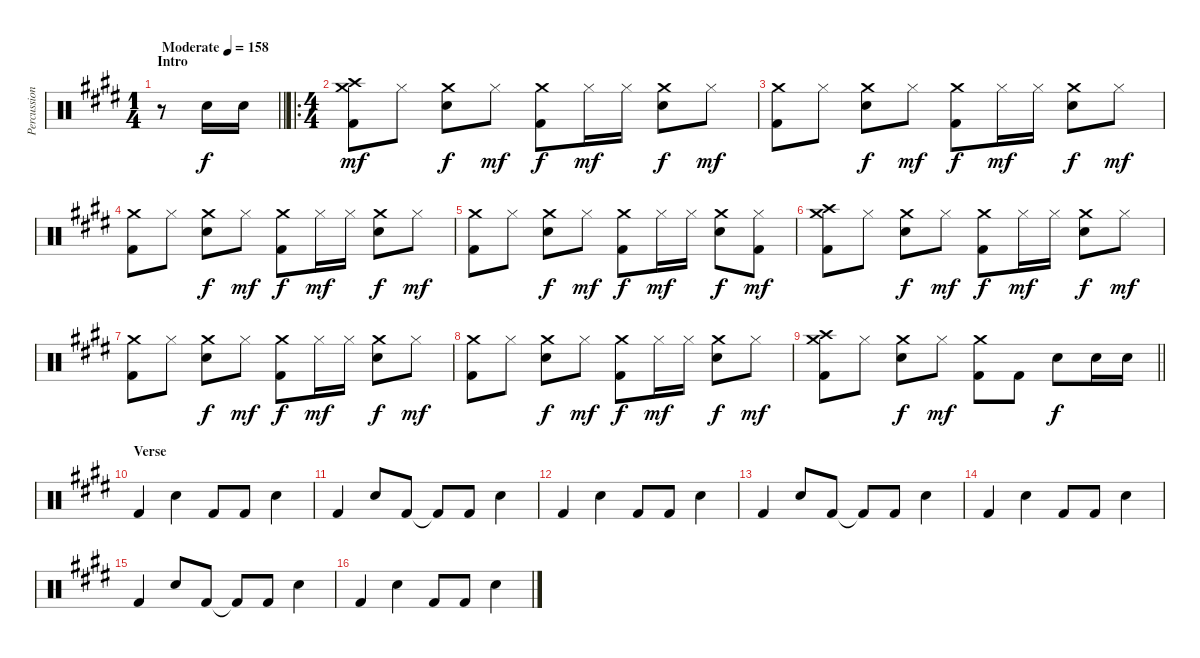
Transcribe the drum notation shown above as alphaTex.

\track ("Percussion" "Percussion") {instrument percussion}
\staff {score}
\articulation defaults
\ts (1 4)
\section ("" "Intro")
\tempo (158 "Moderate")
\clef neutral
\barLineRight lightlight
\ks e
r.8{dy f} "Snare (hit) 2".16 "Snare (hit) 2".16 |
\ro
\ts (4 4)
("Crash high (hit)" "Crash medium (hit)" "Kick (hit) 2").8{dy mf} "Hi-Hat (closed)".8 ("Crash medium (hit)" "Snare (hit) 2").8{dy f} "Hi-Hat (closed)".8{dy mf} ("Crash medium (hit)" "Kick (hit) 2").8{dy f} "Hi-Hat (closed)".16{dy mf} "Hi-Hat (closed)".16 ("Crash medium (hit)" "Snare (hit) 2").8{dy f} "Hi-Hat (closed)".8{dy mf} |
("Crash medium (hit)" "Kick (hit) 2").8 "Hi-Hat (closed)".8 ("Crash medium (hit)" "Snare (hit) 2").8{dy f} "Hi-Hat (closed)".8{dy mf} ("Crash medium (hit)" "Kick (hit) 2").8{dy f} "Hi-Hat (closed)".16{dy mf} "Hi-Hat (closed)".16 ("Crash medium (hit)" "Snare (hit) 2").8{dy f} "Hi-Hat (closed)".8{dy mf} |
("Crash medium (hit)" "Kick (hit) 2").8 "Hi-Hat (closed)".8 ("Crash medium (hit)" "Snare (hit) 2").8{dy f} "Hi-Hat (closed)".8{dy mf} ("Crash medium (hit)" "Kick (hit) 2").8{dy f} "Hi-Hat (closed)".16{dy mf} "Hi-Hat (closed)".16 ("Crash medium (hit)" "Snare (hit) 2").8{dy f} "Hi-Hat (closed)".8{dy mf} |
("Crash medium (hit)" "Kick (hit) 2").8 "Hi-Hat (closed)".8 ("Crash medium (hit)" "Snare (hit) 2").8{dy f} "Hi-Hat (closed)".8{dy mf} ("Crash medium (hit)" "Kick (hit) 2").8{dy f} "Hi-Hat (closed)".16{dy mf} "Hi-Hat (closed)".16 ("Crash medium (hit)" "Snare (hit) 2").8{dy f} ("Hi-Hat (closed)" "Kick (hit) 2").8{dy mf} |
("Crash high (hit)" "Crash medium (hit)" "Kick (hit) 2").8 "Hi-Hat (closed)".8 ("Crash medium (hit)" "Snare (hit) 2").8{dy f} "Hi-Hat (closed)".8{dy mf} ("Crash medium (hit)" "Kick (hit) 2").8{dy f} "Hi-Hat (closed)".16{dy mf} "Hi-Hat (closed)".16 ("Crash medium (hit)" "Snare (hit) 2").8{dy f} "Hi-Hat (closed)".8{dy mf} |
("Crash medium (hit)" "Kick (hit) 2").8 "Hi-Hat (closed)".8 ("Crash medium (hit)" "Snare (hit) 2").8{dy f} "Hi-Hat (closed)".8{dy mf} ("Crash medium (hit)" "Kick (hit) 2").8{dy f} "Hi-Hat (closed)".16{dy mf} "Hi-Hat (closed)".16 ("Crash medium (hit)" "Snare (hit) 2").8{dy f} "Hi-Hat (closed)".8{dy mf} |
("Crash medium (hit)" "Kick (hit) 2").8 "Hi-Hat (closed)".8 ("Crash medium (hit)" "Snare (hit) 2").8{dy f} "Hi-Hat (closed)".8{dy mf} ("Crash medium (hit)" "Kick (hit) 2").8{dy f} "Hi-Hat (closed)".16{dy mf} "Hi-Hat (closed)".16 ("Crash medium (hit)" "Snare (hit) 2").8{dy f} "Hi-Hat (closed)".8{dy mf} |
\barLineRight lightlight
("Crash high (hit)" "Crash medium (hit)" "Kick (hit) 2").8 "Hi-Hat (closed)".8 ("Crash medium (hit)" "Snare (hit) 2").8{dy f} "Hi-Hat (closed)".8{dy mf} ("Crash medium (hit)" "Kick (hit) 2").8 "Kick (hit) 2".8 "Snare (hit) 2".8{dy f} "Snare (hit) 2".16 "Snare (hit) 2".16 |
\section ("" "Verse")
"Kick (hit) 2".4 "Snare (hit) 2".4 "Kick (hit) 2".8 "Kick (hit) 2".8 "Snare (hit) 2".4 |
"Kick (hit) 2".4 "Snare (hit) 2".8 "Kick (hit) 2".8 "Kick (hit) 2"{t}.8 "Kick (hit) 2".8 "Snare (hit) 2".4 |
"Kick (hit) 2".4 "Snare (hit) 2".4 "Kick (hit) 2".8 "Kick (hit) 2".8 "Snare (hit) 2".4 |
"Kick (hit) 2".4 "Snare (hit) 2".8 "Kick (hit) 2".8 "Kick (hit) 2"{t}.8 "Kick (hit) 2".8 "Snare (hit) 2".4 |
"Kick (hit) 2".4 "Snare (hit) 2".4 "Kick (hit) 2".8 "Kick (hit) 2".8 "Snare (hit) 2".4 |
"Kick (hit) 2".4 "Snare (hit) 2".8 "Kick (hit) 2".8 "Kick (hit) 2"{t}.8 "Kick (hit) 2".8 "Snare (hit) 2".4 |
"Kick (hit) 2".4 "Snare (hit) 2".4 "Kick (hit) 2".8 "Kick (hit) 2".8 "Snare (hit) 2".4
